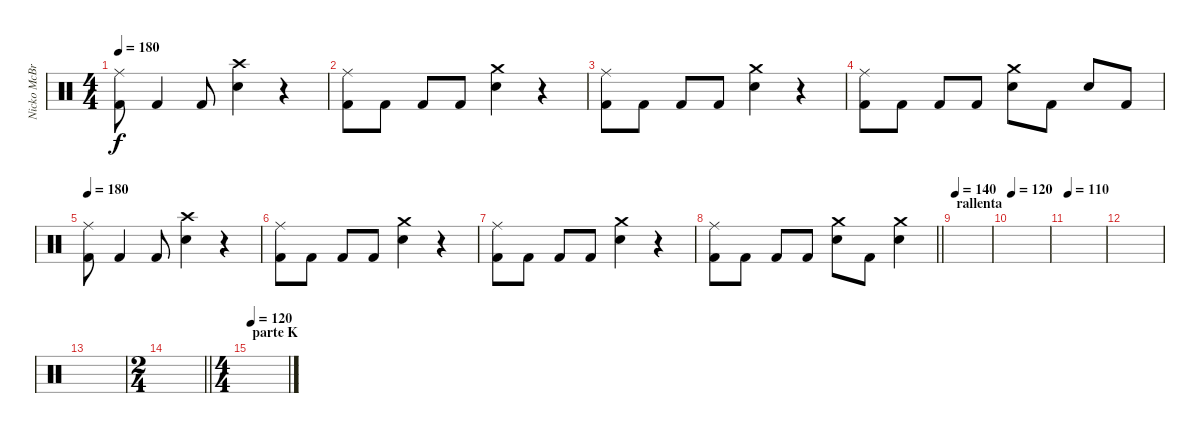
\track ("Nicko McBrain" "Nicko McBr") {instrument percussion}
\staff {score}
\articulation defaults
\ts (4 4)
\tempo 180
\clef neutral
\ks c
("Ride (middle)" "Kick (hit) 2").8{dy f} "Kick (hit) 2".4 "Kick (hit) 2".8 ("Crash high (hit)" "Snare (hit) 2").4 r.4 |
("Ride (middle)" "Kick (hit) 2").8 "Kick (hit) 2".8 "Kick (hit) 2".8 "Kick (hit) 2".8 ("Crash medium (hit)" "Snare (hit) 2").4 r.4 |
("Ride (middle)" "Kick (hit) 2").8 "Kick (hit) 2".8 "Kick (hit) 2".8 "Kick (hit) 2".8 ("Crash medium (hit)" "Snare (hit) 2").4 r.4 |
("Ride (middle)" "Kick (hit) 2").8 "Kick (hit) 2".8 "Kick (hit) 2".8 "Kick (hit) 2".8 ("Crash medium (hit)" "Snare (hit) 2").8 "Kick (hit) 2".8 "Snare (hit) 2".8 "Kick (hit) 2".8 |
\tempo 180
("Ride (middle)" "Kick (hit) 2").8 "Kick (hit) 2".4 "Kick (hit) 2".8 ("Crash high (hit)" "Snare (hit) 2").4 r.4 |
("Ride (middle)" "Kick (hit) 2").8 "Kick (hit) 2".8 "Kick (hit) 2".8 "Kick (hit) 2".8 ("Crash medium (hit)" "Snare (hit) 2").4 r.4 |
("Ride (middle)" "Kick (hit) 2").8 "Kick (hit) 2".8 "Kick (hit) 2".8 "Kick (hit) 2".8 ("Crash medium (hit)" "Snare (hit) 2").4 r.4 |
\barLineRight lightlight
("Ride (middle)" "Kick (hit) 2").8 "Kick (hit) 2".8 "Kick (hit) 2".8 "Kick (hit) 2".8 ("Crash medium (hit)" "Snare (hit) 2").8 "Kick (hit) 2".8 ("Crash medium (hit)" "Snare (hit) 2").4 |
\section ("" "rallenta")
\tempo 140
|
\tempo 120
|
\tempo 110
|
|
|
\ts (2 4)
\barLineRight lightlight
|
\ts (4 4)
\section ("" "parte K")
\tempo 120
